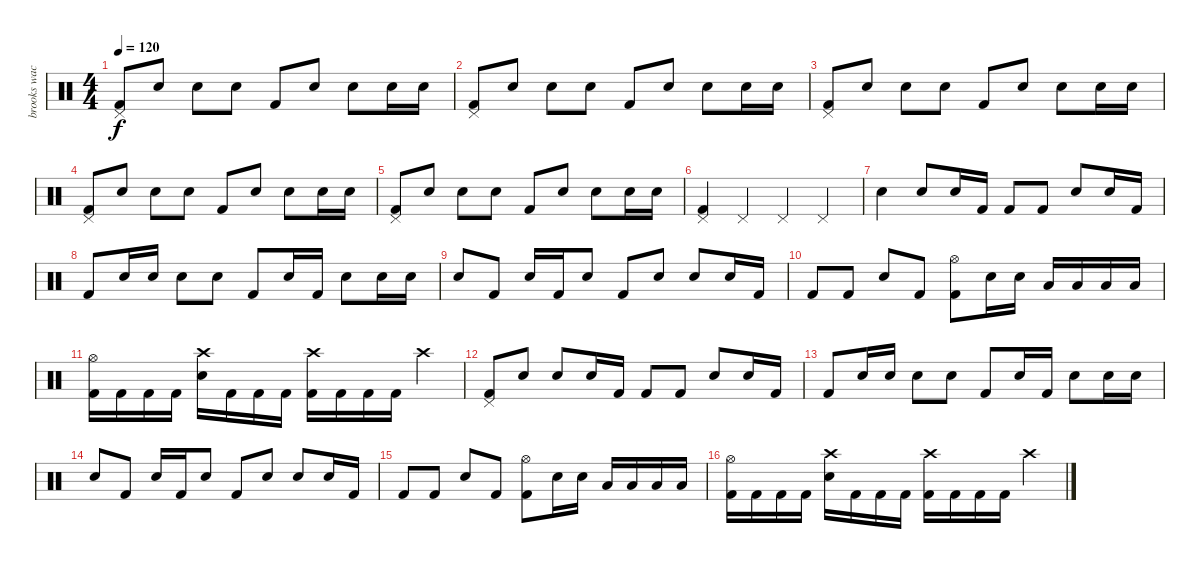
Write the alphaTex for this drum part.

\track ("brooks wackerman" "brooks wac") {instrument percussion}
\staff {score}
\articulation defaults
\ts (4 4)
\tempo 120
\clef neutral
\ks c
("Pedal Hi-Hat (hit)" "Kick (hit) 2").8{dy f} "Snare (hit)"{x}.8 "Electric Snare (hit)".8 "Snare (hit)"{x}.8 "Kick (hit) 2".8 "Snare (hit)"{x}.8 "Electric Snare (hit)".8 "Snare (hit)"{x}.16 "Electric Snare (hit)".16 |
("Pedal Hi-Hat (hit)" "Kick (hit) 2").8 "Snare (hit)"{x}.8 "Electric Snare (hit)".8 "Snare (hit)"{x}.8 "Kick (hit) 2".8 "Snare (hit)"{x}.8 "Electric Snare (hit)".8 "Snare (hit)"{x}.16 "Electric Snare (hit)".16 |
("Pedal Hi-Hat (hit)" "Kick (hit) 2").8 "Snare (hit)"{x}.8 "Electric Snare (hit)".8 "Snare (hit)"{x}.8 "Kick (hit) 2".8 "Snare (hit)"{x}.8 "Electric Snare (hit)".8 "Snare (hit)"{x}.16 "Electric Snare (hit)".16 |
("Pedal Hi-Hat (hit)" "Kick (hit) 2").8 "Snare (hit)"{x}.8 "Electric Snare (hit)".8 "Snare (hit)"{x}.8 "Kick (hit) 2".8 "Snare (hit)"{x}.8 "Electric Snare (hit)".8 "Snare (hit)"{x}.16 "Electric Snare (hit)".16 |
("Pedal Hi-Hat (hit)" "Kick (hit) 2").8 "Snare (hit)"{x}.8 "Electric Snare (hit)".8 "Snare (hit)"{x}.8 "Kick (hit) 2".8 "Snare (hit)"{x}.8 "Electric Snare (hit)".8 "Snare (hit)"{x}.16 "Electric Snare (hit)".16 |
("Pedal Hi-Hat (hit)" "Kick (hit) 2").4 "Pedal Hi-Hat (hit)".4 "Pedal Hi-Hat (hit)".4 "Pedal Hi-Hat (hit)".4 |
"Snare (hit)"{x}.4 "Electric Snare (hit)".8 "Snare (hit)"{x}.16 "Kick (hit) 2".16 "Kick (hit) 2".8 "Kick (hit) 2".8 "Electric Snare (hit)".8 "Snare (hit)"{x}.16 "Kick (hit) 2".16 |
"Kick (hit) 2".8 "Snare (hit)"{x}.16 "Electric Snare (hit)".16 "Electric Snare (hit)".8 "Snare (hit)"{x}.8 "Kick (hit) 2".8 "Snare (hit)"{x}.16 "Kick (hit) 2".16 "Electric Snare (hit)".8 "Snare (hit)"{x}.16 "Electric Snare (hit)".16 |
"Electric Snare (hit)".8 "Kick (hit) 2".8 "Electric Snare (hit)".16 "Kick (hit) 2".16 "Snare (hit)"{x}.8 "Kick (hit) 2".8 "Snare (hit)"{x}.8 "Electric Snare (hit)".8 "Snare (hit)"{x}.16 "Kick (hit) 2".16 |
"Kick (hit) 2".8 "Kick (hit) 2".8 "Electric Snare (hit)".8 "Kick (hit) 2".8 ("Hi-Hat (open)" "Kick (hit) 2").8 "Electric Snare (hit)".16 "Electric Snare (hit)".16 "Low Floor Tom (hit)".16 "Low Floor Tom (hit)".16 "Low Floor Tom (hit)".16 "Low Floor Tom (hit)".16 |
("Hi-Hat (open)" "Kick (hit) 2").16 "Kick (hit) 2".16 "Kick (hit) 2".16 "Kick (hit) 2".16 ("Crash high (hit)" "Electric Snare (hit)").16 "Kick (hit) 2".16 "Kick (hit) 2".16 "Kick (hit) 2".16 ("Crash high (hit)" "Kick (hit) 2").16 "Kick (hit) 2".16 "Kick (hit) 2".16 "Kick (hit) 2".16 "Crash high (hit)".4 |
("Pedal Hi-Hat (hit)" "Kick (hit) 2").8 "Electric Snare (hit)"{x}.8 "Electric Snare (hit)".8 "Snare (hit)"{x}.16 "Kick (hit) 2".16 "Kick (hit) 2".8 "Kick (hit) 2".8 "Electric Snare (hit)".8 "Snare (hit)"{x}.16 "Kick (hit) 2".16 |
"Kick (hit) 2".8 "Snare (hit)"{x}.16 "Electric Snare (hit)".16 "Electric Snare (hit)".8 "Snare (hit)"{x}.8 "Kick (hit) 2".8 "Snare (hit)"{x}.16 "Kick (hit) 2".16 "Electric Snare (hit)".8 "Snare (hit)"{x}.16 "Electric Snare (hit)".16 |
"Electric Snare (hit)".8 "Kick (hit) 2".8 "Electric Snare (hit)".16 "Kick (hit) 2".16 "Snare (hit)"{x}.8 "Kick (hit) 2".8 "Snare (hit)"{x}.8 "Electric Snare (hit)".8 "Snare (hit)"{x}.16 "Kick (hit) 2".16 |
"Kick (hit) 2".8 "Kick (hit) 2".8 "Electric Snare (hit)".8 "Kick (hit) 2".8 ("Hi-Hat (open)" "Kick (hit) 2").8 "Electric Snare (hit)".16 "Electric Snare (hit)".16 "Low Floor Tom (hit)".16 "Low Floor Tom (hit)".16 "Low Floor Tom (hit)".16 "Low Floor Tom (hit)".16 |
("Hi-Hat (open)" "Kick (hit) 2").16 "Kick (hit) 2".16 "Kick (hit) 2".16 "Kick (hit) 2".16 ("Crash high (hit)" "Electric Snare (hit)").16 "Kick (hit) 2".16 "Kick (hit) 2".16 "Kick (hit) 2".16 ("Crash high (hit)" "Kick (hit) 2").16 "Kick (hit) 2".16 "Kick (hit) 2".16 "Kick (hit) 2".16 "Crash high (hit)".4
